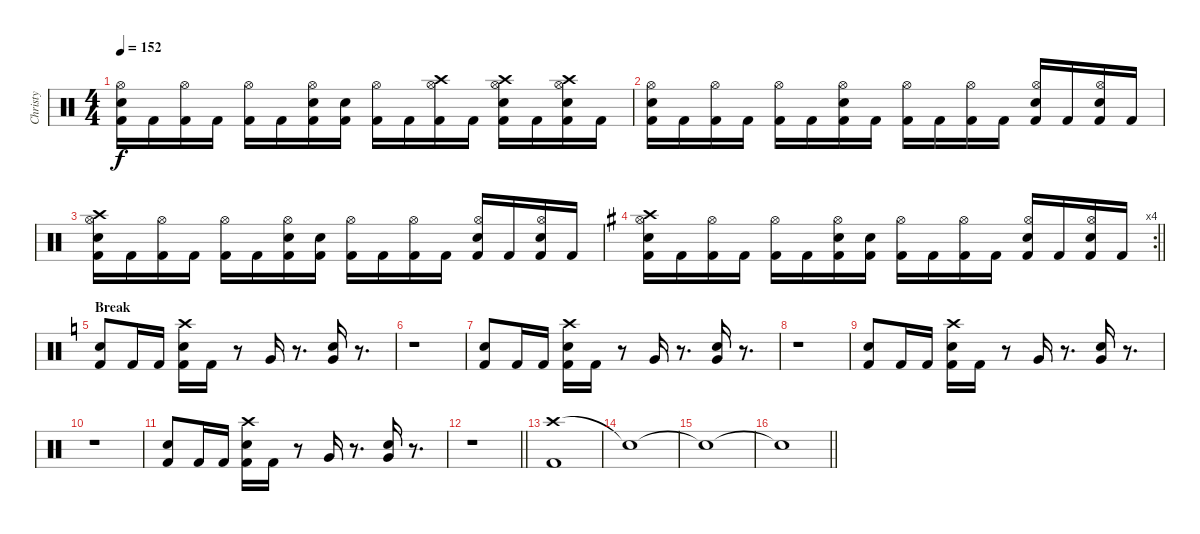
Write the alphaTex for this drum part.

\track ("Christy" "Christy") {instrument percussion}
\staff {score}
\articulation defaults
\ts (4 4)
\tempo 152
\clef neutral
\ks c
("Snare (hit) 2" "Hi-Hat (open)" "Kick (hit) 2").16{dy f} "Kick (hit) 2".16 ("Hi-Hat (open)" "Kick (hit) 2").16 "Kick (hit) 2".16 ("Hi-Hat (open)" "Kick (hit) 2").16 "Kick (hit) 2".16 ("Snare (hit) 2" "Hi-Hat (open)" "Kick (hit) 2").16 ("Snare (hit) 2" "Kick (hit) 2").16 ("Hi-Hat (open)" "Kick (hit) 2").16 "Kick (hit) 2".16 ("Crash high (hit)" "Hi-Hat (open)" "Kick (hit) 2").16 "Kick (hit) 2".16 ("Crash high (hit)" "Snare (hit) 2" "Hi-Hat (open)" "Kick (hit) 2").16 "Kick (hit) 2".16 ("Crash high (hit)" "Snare (hit) 2" "Hi-Hat (open)" "Kick (hit) 2").16 "Kick (hit) 2".16 |
("Snare (hit) 2" "Hi-Hat (open)" "Kick (hit) 2").16 "Kick (hit) 2".16 ("Hi-Hat (open)" "Kick (hit) 2").16 "Kick (hit) 2".16 ("Hi-Hat (open)" "Kick (hit) 2").16 "Kick (hit) 2".16 ("Snare (hit) 2" "Hi-Hat (open)" "Kick (hit) 2").16 "Kick (hit) 2".16 ("Hi-Hat (open)" "Kick (hit) 2").16 "Kick (hit) 2".16 ("Hi-Hat (open)" "Kick (hit) 2").16 "Kick (hit) 2".16 ("Snare (hit) 2" "Hi-Hat (open)" "Kick (hit) 2").16 "Kick (hit) 2".16 ("Snare (hit) 2" "Hi-Hat (open)" "Kick (hit) 2").16 "Kick (hit) 2".16 |
("Crash high (hit)" "Snare (hit) 2" "Hi-Hat (open)" "Kick (hit) 2").16 "Kick (hit) 2".16 ("Hi-Hat (open)" "Kick (hit) 2").16 "Kick (hit) 2".16 ("Hi-Hat (open)" "Kick (hit) 2").16 "Kick (hit) 2".16 ("Snare (hit) 2" "Hi-Hat (open)" "Kick (hit) 2").16 ("Snare (hit) 2" "Kick (hit) 2").16 ("Hi-Hat (open)" "Kick (hit) 2").16 "Kick (hit) 2".16 ("Hi-Hat (open)" "Kick (hit) 2").16 "Kick (hit) 2".16 ("Snare (hit) 2" "Hi-Hat (open)" "Kick (hit) 2").16 "Kick (hit) 2".16 ("Snare (hit) 2" "Hi-Hat (open)" "Kick (hit) 2").16 "Kick (hit) 2".16 |
\rc 4
\barLineRight lightlight
\ks g
("Crash high (hit)" "Snare (hit) 2" "Hi-Hat (open)" "Kick (hit) 2").16 "Kick (hit) 2".16 ("Hi-Hat (open)" "Kick (hit) 2").16 "Kick (hit) 2".16 ("Hi-Hat (open)" "Kick (hit) 2").16 "Kick (hit) 2".16 ("Snare (hit) 2" "Hi-Hat (open)" "Kick (hit) 2").16 ("Snare (hit) 2" "Kick (hit) 2").16 ("Hi-Hat (open)" "Kick (hit) 2").16 "Kick (hit) 2".16 ("Hi-Hat (open)" "Kick (hit) 2").16 "Kick (hit) 2".16 ("Snare (hit) 2" "Hi-Hat (open)" "Kick (hit) 2").16 "Kick (hit) 2".16 ("Snare (hit) 2" "Hi-Hat (open)" "Kick (hit) 2").16 "Kick (hit) 2".16 |
\section ("" "Break")
\ks c
("Snare (hit) 2" "Kick (hit) 2").8 "Kick (hit) 2".16 "Kick (hit) 2".16 ("Crash high (hit)" "Snare (hit) 2" "Kick (hit) 2").16 "Kick (hit) 2".16 r.8 "Very Low Tom (hit)".16 r.8{d} ("Snare (hit) 2" "Very Low Tom (hit)").16 r.8{d} |
r.1 |
("Snare (hit) 2" "Kick (hit) 2").8 "Kick (hit) 2".16 "Kick (hit) 2".16 ("Crash high (hit)" "Snare (hit) 2" "Kick (hit) 2").16 "Kick (hit) 2".16 r.8 "Very Low Tom (hit)".16 r.8{d} ("Snare (hit) 2" "Very Low Tom (hit)").16 r.8{d} |
r.1 |
("Snare (hit) 2" "Kick (hit) 2").8 "Kick (hit) 2".16 "Kick (hit) 2".16 ("Crash high (hit)" "Snare (hit) 2" "Kick (hit) 2").16 "Kick (hit) 2".16 r.8 "Very Low Tom (hit)".16 r.8{d} ("Snare (hit) 2" "Very Low Tom (hit)").16 r.8{d} |
r.1 |
("Snare (hit) 2" "Kick (hit) 2").8 "Kick (hit) 2".16 "Kick (hit) 2".16 ("Crash high (hit)" "Snare (hit) 2" "Kick (hit) 2").16 "Kick (hit) 2".16 r.8 "Very Low Tom (hit)".16 r.8{d} ("Snare (hit) 2" "Very Low Tom (hit)").16 r.8{d} |
\barLineRight lightlight
r.1 |
\section ("" "")
("Crash high (hit)" "Kick (hit) 2").1 |
"Snare (hit)"{t}.1 |
"Snare (hit)"{t}.1 |
\barLineRight lightlight "Snare (hit)"{t}.1
